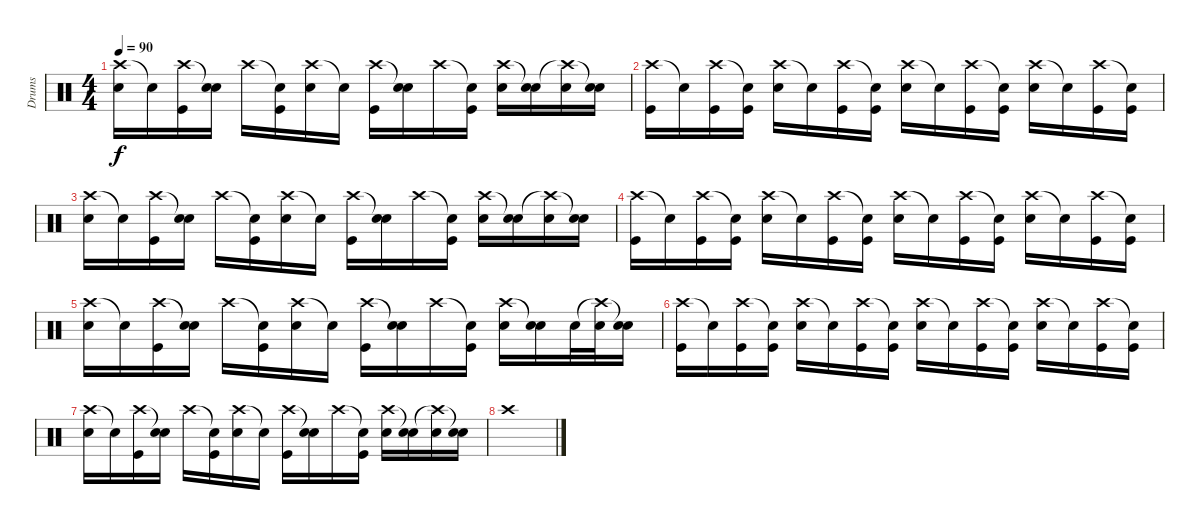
\track ("Drums" "Drums") {instrument percussion}
\staff {score}
\articulation defaults
\ts (4 4)
\tempo 90
\clef neutral
\ks c
("Crash high (hit)" "Electric Snare (hit)").16{dy f} "Snare (hit)"{t}.16 ("Crash high (hit)" "Kick (hit)").16 ("Snare (hit)"{t} "Electric Snare (hit)").16 "Crash high (hit)".16 ("Snare (hit)"{t} "Kick (hit)").16 ("Crash high (hit)" "Electric Snare (hit)").16 "Snare (hit)"{t}.16 ("Crash high (hit)" "Kick (hit)").16 ("Snare (hit)"{t} "Electric Snare (hit)").16 "Crash high (hit)".16 ("Snare (hit)"{t} "Kick (hit)").16 ("Crash high (hit)" "Electric Snare (hit)").16 ("Snare (hit)"{t} "Electric Snare (hit)").16 ("Crash high (hit)"{t} "Electric Snare (hit)").16 ("Snare (hit)"{t} "Electric Snare (hit)").16 |
("Crash high (hit)" "Kick (hit)").16 "Snare (hit)"{t}.16 ("Crash high (hit)" "Kick (hit)").16 ("Snare (hit)"{t} "Kick (hit)").16 ("Crash high (hit)" "Electric Snare (hit)").16 "Snare (hit)"{t}.16 ("Crash high (hit)" "Kick (hit)").16 ("Snare (hit)"{t} "Kick (hit)").16 ("Crash high (hit)" "Electric Snare (hit)").16 "Snare (hit)"{t}.16 ("Crash high (hit)" "Kick (hit)").16 ("Snare (hit)"{t} "Kick (hit)").16 ("Crash high (hit)" "Electric Snare (hit)").16 "Snare (hit)"{t}.16 ("Crash high (hit)" "Kick (hit)").16 ("Snare (hit)"{t} "Kick (hit)").16 |
("Crash high (hit)" "Electric Snare (hit)").16 "Snare (hit)"{t}.16 ("Crash high (hit)" "Kick (hit)").16 ("Snare (hit)"{t} "Electric Snare (hit)").16 "Crash high (hit)".16 ("Snare (hit)"{t} "Kick (hit)").16 ("Crash high (hit)" "Electric Snare (hit)").16 "Snare (hit)"{t}.16 ("Crash high (hit)" "Kick (hit)").16 ("Snare (hit)"{t} "Electric Snare (hit)").16 "Crash high (hit)".16 ("Snare (hit)"{t} "Kick (hit)").16 ("Crash high (hit)" "Electric Snare (hit)").16 ("Snare (hit)"{t} "Electric Snare (hit)").16 ("Crash high (hit)"{t} "Electric Snare (hit)").16 ("Snare (hit)"{t} "Electric Snare (hit)").16 |
("Crash high (hit)" "Kick (hit)").16 "Snare (hit)"{t}.16 ("Crash high (hit)" "Kick (hit)").16 ("Snare (hit)"{t} "Kick (hit)").16 ("Crash high (hit)" "Electric Snare (hit)").16 "Snare (hit)"{t}.16 ("Crash high (hit)" "Kick (hit)").16 ("Snare (hit)"{t} "Kick (hit)").16 ("Crash high (hit)" "Electric Snare (hit)").16 "Snare (hit)"{t}.16 ("Crash high (hit)" "Kick (hit)").16 ("Snare (hit)"{t} "Kick (hit)").16 ("Crash high (hit)" "Electric Snare (hit)").16 "Snare (hit)"{t}.16 ("Crash high (hit)" "Kick (hit)").16 ("Snare (hit)"{t} "Kick (hit)").16 |
("Crash high (hit)" "Electric Snare (hit)").16 "Snare (hit)"{t}.16 ("Crash high (hit)" "Kick (hit)").16 ("Snare (hit)"{t} "Electric Snare (hit)").16 "Crash high (hit)".16 ("Snare (hit)"{t} "Kick (hit)").16 ("Crash high (hit)" "Electric Snare (hit)").16 "Snare (hit)"{t}.16 ("Crash high (hit)" "Kick (hit)").16 ("Snare (hit)"{t} "Electric Snare (hit)").16 "Crash high (hit)".16 ("Snare (hit)"{t} "Kick (hit)").16 ("Crash high (hit)" "Electric Snare (hit)").16 ("Snare (hit)"{t} "Electric Snare (hit)").16 "Electric Snare (hit)".32 ("Crash high (hit)"{t} "Electric Snare (hit)").32 ("Snare (hit)"{t} "Electric Snare (hit)").16 |
("Crash high (hit)" "Kick (hit)").16 "Snare (hit)"{t}.16 ("Crash high (hit)" "Kick (hit)").16 ("Snare (hit)"{t} "Kick (hit)").16 ("Crash high (hit)" "Electric Snare (hit)").16 "Snare (hit)"{t}.16 ("Crash high (hit)" "Kick (hit)").16 ("Snare (hit)"{t} "Kick (hit)").16 ("Crash high (hit)" "Electric Snare (hit)").16 "Snare (hit)"{t}.16 ("Crash high (hit)" "Kick (hit)").16 ("Snare (hit)"{t} "Kick (hit)").16 ("Crash high (hit)" "Electric Snare (hit)").16 "Snare (hit)"{t}.16 ("Crash high (hit)" "Kick (hit)").16 ("Snare (hit)"{t} "Kick (hit)").16 |
("Crash high (hit)" "Electric Snare (hit)").16 "Snare (hit)"{t}.16 ("Crash high (hit)" "Kick (hit)").16 ("Snare (hit)"{t} "Electric Snare (hit)").16 "Crash high (hit)".16 ("Snare (hit)"{t} "Kick (hit)").16 ("Crash high (hit)" "Electric Snare (hit)").16 "Snare (hit)"{t}.16 ("Crash high (hit)" "Kick (hit)").16 ("Snare (hit)"{t} "Electric Snare (hit)").16 "Crash high (hit)".16 ("Snare (hit)"{t} "Kick (hit)").16 ("Crash high (hit)" "Electric Snare (hit)").16 ("Snare (hit)"{t} "Electric Snare (hit)").16 ("Crash high (hit)"{t} "Electric Snare (hit)").16 ("Snare (hit)"{t} "Electric Snare (hit)").16 |
"Crash high (hit)".1
